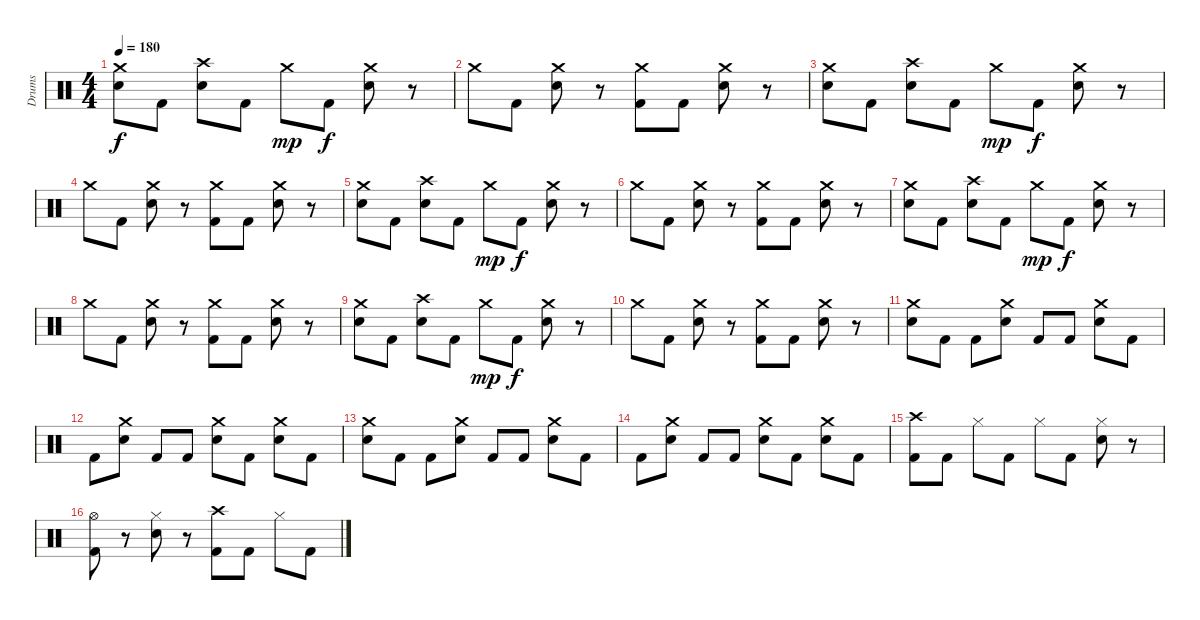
\track ("Drums" "Drums") {instrument percussion}
\staff {score}
\articulation defaults
\ts (4 4)
\tempo 180
\clef neutral
\ks c
("Electric Snare (hit)" "Crash medium (hit)").8{dy f} "Kick (hit) 2".8 ("Electric Snare (hit)" "Crash high (hit)").8 "Kick (hit) 2".8 "Crash medium (hit)".8{dy mp} "Kick (hit) 2".8{dy f} ("Electric Snare (hit)" "Crash medium (hit)").8 r.8 |
"Crash medium (hit)".8 "Kick (hit) 2".8 ("Electric Snare (hit)" "Crash medium (hit)").8 r.8 ("Kick (hit) 2" "Crash medium (hit)").8 "Kick (hit) 2".8 ("Electric Snare (hit)" "Crash medium (hit)").8 r.8 |
("Electric Snare (hit)" "Crash medium (hit)").8 "Kick (hit) 2".8 ("Electric Snare (hit)" "Crash high (hit)").8 "Kick (hit) 2".8 "Crash medium (hit)".8{dy mp} "Kick (hit) 2".8{dy f} ("Electric Snare (hit)" "Crash medium (hit)").8 r.8 |
"Crash medium (hit)".8 "Kick (hit) 2".8 ("Electric Snare (hit)" "Crash medium (hit)").8 r.8 ("Kick (hit) 2" "Crash medium (hit)").8 "Kick (hit) 2".8 ("Electric Snare (hit)" "Crash medium (hit)").8 r.8 |
("Electric Snare (hit)" "Crash medium (hit)").8 "Kick (hit) 2".8 ("Electric Snare (hit)" "Crash high (hit)").8 "Kick (hit) 2".8 "Crash medium (hit)".8{dy mp} "Kick (hit) 2".8{dy f} ("Electric Snare (hit)" "Crash medium (hit)").8 r.8 |
"Crash medium (hit)".8 "Kick (hit) 2".8 ("Electric Snare (hit)" "Crash medium (hit)").8 r.8 ("Kick (hit) 2" "Crash medium (hit)").8 "Kick (hit) 2".8 ("Electric Snare (hit)" "Crash medium (hit)").8 r.8 |
("Electric Snare (hit)" "Crash medium (hit)").8 "Kick (hit) 2".8 ("Electric Snare (hit)" "Crash high (hit)").8 "Kick (hit) 2".8 "Crash medium (hit)".8{dy mp} "Kick (hit) 2".8{dy f} ("Electric Snare (hit)" "Crash medium (hit)").8 r.8 |
"Crash medium (hit)".8 "Kick (hit) 2".8 ("Electric Snare (hit)" "Crash medium (hit)").8 r.8 ("Kick (hit) 2" "Crash medium (hit)").8 "Kick (hit) 2".8 ("Electric Snare (hit)" "Crash medium (hit)").8 r.8 |
("Electric Snare (hit)" "Crash medium (hit)").8 "Kick (hit) 2".8 ("Electric Snare (hit)" "Crash high (hit)").8 "Kick (hit) 2".8 "Crash medium (hit)".8{dy mp} "Kick (hit) 2".8{dy f} ("Electric Snare (hit)" "Crash medium (hit)").8 r.8 |
"Crash medium (hit)".8 "Kick (hit) 2".8 ("Electric Snare (hit)" "Crash medium (hit)").8 r.8 ("Kick (hit) 2" "Crash medium (hit)").8 "Kick (hit) 2".8 ("Electric Snare (hit)" "Crash medium (hit)").8 r.8 |
("Electric Snare (hit)" "Crash medium (hit)").8 "Kick (hit) 2".8 "Kick (hit) 2".8 ("Electric Snare (hit)" "Crash medium (hit)").8 "Kick (hit) 2".8 "Kick (hit) 2".8 ("Electric Snare (hit)" "Crash medium (hit)").8 "Kick (hit) 2".8 |
"Kick (hit) 2".8 ("Electric Snare (hit)" "Crash medium (hit)").8 "Kick (hit) 2".8 "Kick (hit) 2".8 ("Electric Snare (hit)" "Crash medium (hit)").8 "Kick (hit) 2".8 ("Electric Snare (hit)" "Crash medium (hit)").8 "Kick (hit) 2".8 |
("Electric Snare (hit)" "Crash medium (hit)").8 "Kick (hit) 2".8 "Kick (hit) 2".8 ("Electric Snare (hit)" "Crash medium (hit)").8 "Kick (hit) 2".8 "Kick (hit) 2".8 ("Electric Snare (hit)" "Crash medium (hit)").8 "Kick (hit) 2".8 |
"Kick (hit) 2".8 ("Electric Snare (hit)" "Crash medium (hit)").8 "Kick (hit) 2".8 "Kick (hit) 2".8 ("Electric Snare (hit)" "Crash medium (hit)").8 "Kick (hit) 2".8 ("Electric Snare (hit)" "Crash medium (hit)").8 "Kick (hit) 2".8 |
("Crash high (hit)" "Kick (hit) 2").8 "Kick (hit) 2".8 "Hi-Hat (closed)".8 "Kick (hit) 2".8 "Hi-Hat (closed)".8 "Kick (hit) 2".8 ("Electric Snare (hit)" "Hi-Hat (closed)").8 r.8 |
("Kick (hit) 2" "Hi-Hat (open)").8 r.8 ("Electric Snare (hit)" "Hi-Hat (closed)").8 r.8 ("Kick (hit) 2" "Crash high (hit)").8 "Kick (hit) 2".8 "Hi-Hat (closed)".8 "Kick (hit) 2".8
